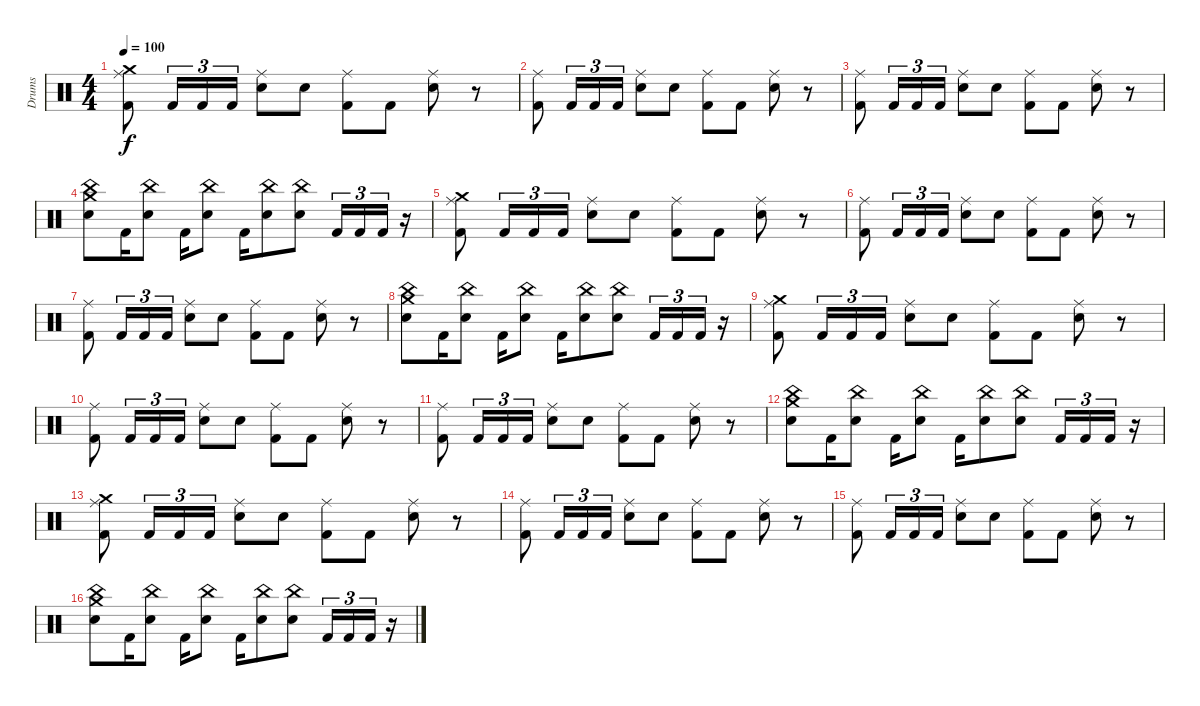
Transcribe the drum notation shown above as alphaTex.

\track ("Drums" "Drums") {instrument percussion}
\staff {score}
\articulation defaults
\ts (4 4)
\tempo 100
\clef neutral
\ks c
("Crash medium (hit)" "Kick (hit) 2" "Ride (middle)").8{dy f} "Kick (hit) 2".16{tu (3 2)} "Kick (hit) 2".16{tu (3 2)} "Kick (hit) 2".16{tu (3 2)} ("Snare (hit) 2" "Ride (middle)").8 "Snare (hit) 2".8 ("Kick (hit) 2" "Ride (middle)").8 "Kick (hit) 2".8 ("Snare (hit) 2" "Ride (middle)").8 r.8 |
("Kick (hit) 2" "Ride (middle)").8 "Kick (hit) 2".16{tu (3 2)} "Kick (hit) 2".16{tu (3 2)} "Kick (hit) 2".16{tu (3 2)} ("Snare (hit) 2" "Ride (middle)").8 "Snare (hit) 2".8 ("Kick (hit) 2" "Ride (middle)").8 "Kick (hit) 2".8 ("Snare (hit) 2" "Ride (middle)").8 r.8 |
("Kick (hit) 2" "Ride (middle)").8 "Kick (hit) 2".16{tu (3 2)} "Kick (hit) 2".16{tu (3 2)} "Kick (hit) 2".16{tu (3 2)} ("Snare (hit) 2" "Ride (middle)").8 "Snare (hit) 2".8 ("Kick (hit) 2" "Ride (middle)").8 "Kick (hit) 2".8 ("Snare (hit) 2" "Ride (middle)").8 r.8 |
("China (hit)" "Crash medium (hit)" "Snare (hit) 2").8 "Kick (hit) 2".16 ("China (hit)" "Snare (hit) 2").8 "Kick (hit) 2".16 ("China (hit)" "Snare (hit) 2").8 "Kick (hit) 2".16 ("China (hit)" "Snare (hit) 2").8 ("China (hit)" "Snare (hit) 2").8 "Kick (hit) 2".16{tu (3 2)} "Kick (hit) 2".16{tu (3 2)} "Kick (hit) 2".16{tu (3 2)} r.16 |
("Crash medium (hit)" "Kick (hit) 2" "Ride (middle)").8 "Kick (hit) 2".16{tu (3 2)} "Kick (hit) 2".16{tu (3 2)} "Kick (hit) 2".16{tu (3 2)} ("Snare (hit) 2" "Ride (middle)").8 "Snare (hit) 2".8 ("Kick (hit) 2" "Ride (middle)").8 "Kick (hit) 2".8 ("Snare (hit) 2" "Ride (middle)").8 r.8 |
("Kick (hit) 2" "Ride (middle)").8 "Kick (hit) 2".16{tu (3 2)} "Kick (hit) 2".16{tu (3 2)} "Kick (hit) 2".16{tu (3 2)} ("Snare (hit) 2" "Ride (middle)").8 "Snare (hit) 2".8 ("Kick (hit) 2" "Ride (middle)").8 "Kick (hit) 2".8 ("Snare (hit) 2" "Ride (middle)").8 r.8 |
("Kick (hit) 2" "Ride (middle)").8 "Kick (hit) 2".16{tu (3 2)} "Kick (hit) 2".16{tu (3 2)} "Kick (hit) 2".16{tu (3 2)} ("Snare (hit) 2" "Ride (middle)").8 "Snare (hit) 2".8 ("Kick (hit) 2" "Ride (middle)").8 "Kick (hit) 2".8 ("Snare (hit) 2" "Ride (middle)").8 r.8 |
("China (hit)" "Crash medium (hit)" "Snare (hit) 2").8 "Kick (hit) 2".16 ("China (hit)" "Snare (hit) 2").8 "Kick (hit) 2".16 ("China (hit)" "Snare (hit) 2").8 "Kick (hit) 2".16 ("China (hit)" "Snare (hit) 2").8 ("China (hit)" "Snare (hit) 2").8 "Kick (hit) 2".16{tu (3 2)} "Kick (hit) 2".16{tu (3 2)} "Kick (hit) 2".16{tu (3 2)} r.16 |
("Crash medium (hit)" "Kick (hit) 2" "Ride (middle)").8 "Kick (hit) 2".16{tu (3 2)} "Kick (hit) 2".16{tu (3 2)} "Kick (hit) 2".16{tu (3 2)} ("Snare (hit) 2" "Ride (middle)").8 "Snare (hit) 2".8 ("Kick (hit) 2" "Ride (middle)").8 "Kick (hit) 2".8 ("Snare (hit) 2" "Ride (middle)").8 r.8 |
("Kick (hit) 2" "Ride (middle)").8 "Kick (hit) 2".16{tu (3 2)} "Kick (hit) 2".16{tu (3 2)} "Kick (hit) 2".16{tu (3 2)} ("Snare (hit) 2" "Ride (middle)").8 "Snare (hit) 2".8 ("Kick (hit) 2" "Ride (middle)").8 "Kick (hit) 2".8 ("Snare (hit) 2" "Ride (middle)").8 r.8 |
("Kick (hit) 2" "Ride (middle)").8 "Kick (hit) 2".16{tu (3 2)} "Kick (hit) 2".16{tu (3 2)} "Kick (hit) 2".16{tu (3 2)} ("Snare (hit) 2" "Ride (middle)").8 "Snare (hit) 2".8 ("Kick (hit) 2" "Ride (middle)").8 "Kick (hit) 2".8 ("Snare (hit) 2" "Ride (middle)").8 r.8 |
("China (hit)" "Crash medium (hit)" "Snare (hit) 2").8 "Kick (hit) 2".16 ("China (hit)" "Snare (hit) 2").8 "Kick (hit) 2".16 ("China (hit)" "Snare (hit) 2").8 "Kick (hit) 2".16 ("China (hit)" "Snare (hit) 2").8 ("China (hit)" "Snare (hit) 2").8 "Kick (hit) 2".16{tu (3 2)} "Kick (hit) 2".16{tu (3 2)} "Kick (hit) 2".16{tu (3 2)} r.16 |
("Crash medium (hit)" "Kick (hit) 2" "Ride (middle)").8 "Kick (hit) 2".16{tu (3 2)} "Kick (hit) 2".16{tu (3 2)} "Kick (hit) 2".16{tu (3 2)} ("Snare (hit) 2" "Ride (middle)").8 "Snare (hit) 2".8 ("Kick (hit) 2" "Ride (middle)").8 "Kick (hit) 2".8 ("Snare (hit) 2" "Ride (middle)").8 r.8 |
("Kick (hit) 2" "Ride (middle)").8 "Kick (hit) 2".16{tu (3 2)} "Kick (hit) 2".16{tu (3 2)} "Kick (hit) 2".16{tu (3 2)} ("Snare (hit) 2" "Ride (middle)").8 "Snare (hit) 2".8 ("Kick (hit) 2" "Ride (middle)").8 "Kick (hit) 2".8 ("Snare (hit) 2" "Ride (middle)").8 r.8 |
("Kick (hit) 2" "Ride (middle)").8 "Kick (hit) 2".16{tu (3 2)} "Kick (hit) 2".16{tu (3 2)} "Kick (hit) 2".16{tu (3 2)} ("Snare (hit) 2" "Ride (middle)").8 "Snare (hit) 2".8 ("Kick (hit) 2" "Ride (middle)").8 "Kick (hit) 2".8 ("Snare (hit) 2" "Ride (middle)").8 r.8 |
("China (hit)" "Crash medium (hit)" "Snare (hit) 2").8 "Kick (hit) 2".16 ("China (hit)" "Snare (hit) 2").8 "Kick (hit) 2".16 ("China (hit)" "Snare (hit) 2").8 "Kick (hit) 2".16 ("China (hit)" "Snare (hit) 2").8 ("China (hit)" "Snare (hit) 2").8 "Kick (hit) 2".16{tu (3 2)} "Kick (hit) 2".16{tu (3 2)} "Kick (hit) 2".16{tu (3 2)} r.16
